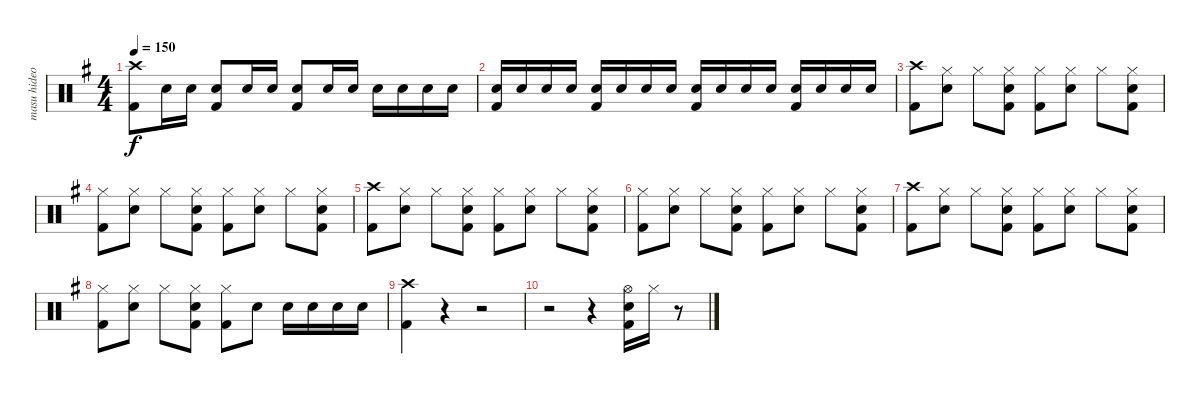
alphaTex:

\track ("masu hideo - drum" "masu hideo") {instrument percussion}
\staff {score}
\articulation defaults
\ts (4 4)
\tempo 150
\clef neutral
\ks g
("Crash high (hit)" "Kick (hit) 2").8{dy f} "Electric Snare (hit)".16 "Electric Snare (hit)".16 ("Electric Snare (hit)" "Kick (hit) 2").8 "Electric Snare (hit)".16 "Electric Snare (hit)".16 ("Electric Snare (hit)" "Kick (hit) 2").8 "Electric Snare (hit)".16 "Electric Snare (hit)".16 "Electric Snare (hit)".16 "Electric Snare (hit)".16 "Electric Snare (hit)".16 "Electric Snare (hit)".16 |
("Electric Snare (hit)" "Kick (hit) 2").16 "Electric Snare (hit)".16 "Electric Snare (hit)".16 "Electric Snare (hit)".16 ("Electric Snare (hit)" "Kick (hit) 2").16 "Electric Snare (hit)".16 "Electric Snare (hit)".16 "Electric Snare (hit)".16 ("Electric Snare (hit)" "Kick (hit) 2").16 "Electric Snare (hit)".16 "Electric Snare (hit)".16 "Electric Snare (hit)".16 ("Electric Snare (hit)" "Kick (hit) 2").16 "Electric Snare (hit)".16 "Electric Snare (hit)".16 "Electric Snare (hit)".16 |
("Crash high (hit)" "Kick (hit) 2").8 ("Hi-Hat (closed)" "Electric Snare (hit)").8 "Hi-Hat (closed)".8 ("Hi-Hat (closed)" "Electric Snare (hit)" "Kick (hit) 2").8 ("Hi-Hat (closed)" "Kick (hit) 2").8 ("Hi-Hat (closed)" "Electric Snare (hit)").8 "Hi-Hat (closed)".8 ("Hi-Hat (closed)" "Electric Snare (hit)" "Kick (hit) 2").8 |
("Hi-Hat (closed)" "Kick (hit) 2").8 ("Hi-Hat (closed)" "Electric Snare (hit)").8 "Hi-Hat (closed)".8 ("Hi-Hat (closed)" "Electric Snare (hit)" "Kick (hit) 2").8 ("Hi-Hat (closed)" "Kick (hit) 2").8 ("Hi-Hat (closed)" "Electric Snare (hit)").8 "Hi-Hat (closed)".8 ("Hi-Hat (closed)" "Electric Snare (hit)" "Kick (hit) 2").8 |
("Crash high (hit)" "Kick (hit) 2").8 ("Hi-Hat (closed)" "Electric Snare (hit)").8 "Hi-Hat (closed)".8 ("Hi-Hat (closed)" "Electric Snare (hit)" "Kick (hit) 2").8 ("Hi-Hat (closed)" "Kick (hit) 2").8 ("Hi-Hat (closed)" "Electric Snare (hit)").8 "Hi-Hat (closed)".8 ("Hi-Hat (closed)" "Electric Snare (hit)" "Kick (hit) 2").8 |
("Hi-Hat (closed)" "Kick (hit) 2").8 ("Hi-Hat (closed)" "Electric Snare (hit)").8 "Hi-Hat (closed)".8 ("Hi-Hat (closed)" "Electric Snare (hit)" "Kick (hit) 2").8 ("Hi-Hat (closed)" "Kick (hit) 2").8 ("Hi-Hat (closed)" "Electric Snare (hit)").8 "Hi-Hat (closed)".8 ("Hi-Hat (closed)" "Electric Snare (hit)" "Kick (hit) 2").8 |
("Crash high (hit)" "Kick (hit) 2").8 ("Hi-Hat (closed)" "Electric Snare (hit)").8 "Hi-Hat (closed)".8 ("Hi-Hat (closed)" "Electric Snare (hit)" "Kick (hit) 2").8 ("Hi-Hat (closed)" "Kick (hit) 2").8 ("Hi-Hat (closed)" "Electric Snare (hit)").8 "Hi-Hat (closed)".8 ("Hi-Hat (closed)" "Electric Snare (hit)" "Kick (hit) 2").8 |
("Hi-Hat (closed)" "Kick (hit) 2").8 ("Hi-Hat (closed)" "Electric Snare (hit)").8 "Hi-Hat (closed)".8 ("Hi-Hat (closed)" "Electric Snare (hit)" "Kick (hit) 2").8 ("Hi-Hat (closed)" "Kick (hit) 2").8 "Electric Snare (hit)".8 "Electric Snare (hit)".16 "Electric Snare (hit)".16 "Electric Snare (hit)".16 "Electric Snare (hit)".16 |
("Crash high (hit)" "Kick (hit) 2").4 r.4 r.2 |
r.2 r.4 ("Hi-Hat (open)" "Electric Snare (hit)" "Kick (hit) 2").16 "Hi-Hat (closed)".16 r.8
